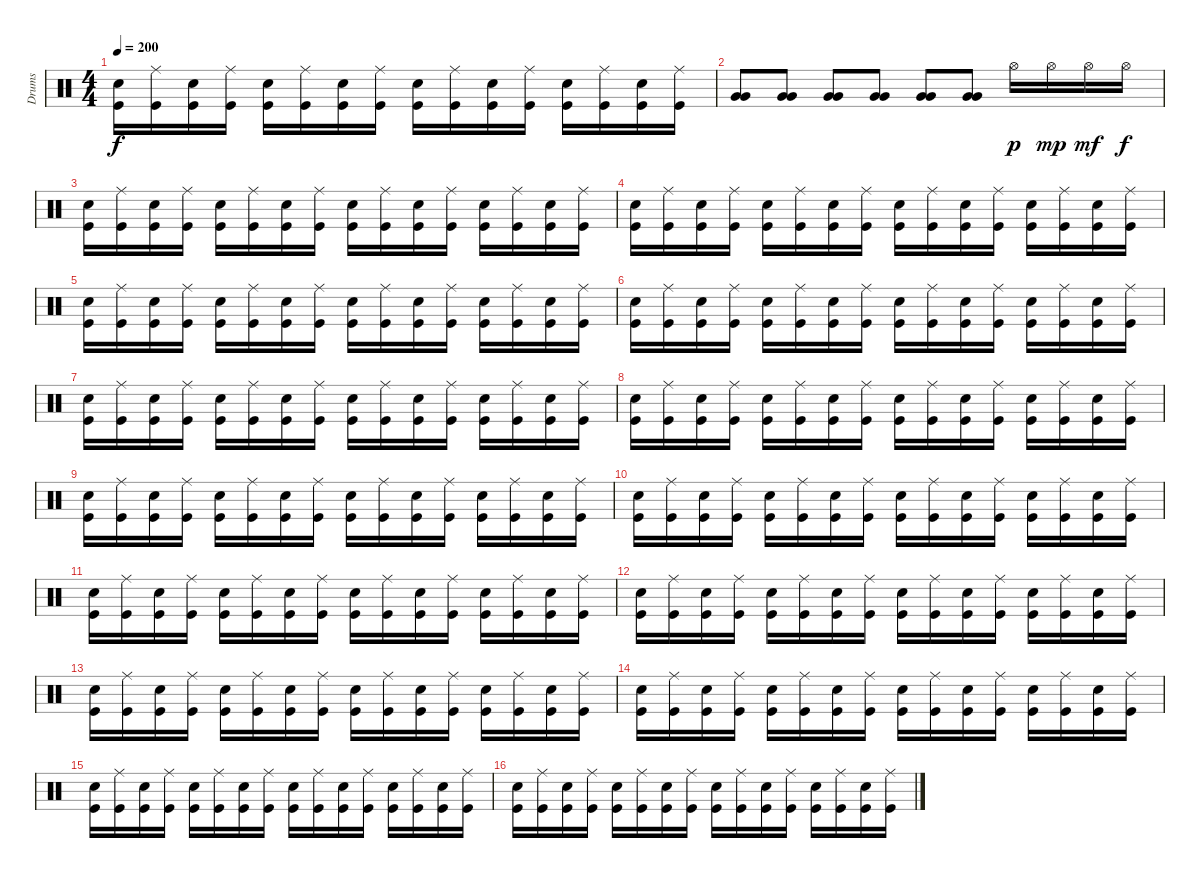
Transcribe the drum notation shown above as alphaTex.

\track ("Drums" "Drums") {instrument percussion}
\staff {score}
\articulation defaults
\ts (4 4)
\tempo 200
\clef neutral
\ks c
("Electric Snare (hit)" "Kick (hit)").16{dy f} ("Ride (middle)" "Kick (hit)").16 ("Electric Snare (hit)" "Kick (hit)").16 ("Ride (middle)" "Kick (hit)").16 ("Electric Snare (hit)" "Kick (hit)").16 ("Ride (middle)" "Kick (hit)").16 ("Electric Snare (hit)" "Kick (hit)").16 ("Ride (middle)" "Kick (hit)").16 ("Electric Snare (hit)" "Kick (hit)").16 ("Ride (middle)" "Kick (hit)").16 ("Electric Snare (hit)" "Kick (hit)").16 ("Ride (middle)" "Kick (hit)").16 ("Electric Snare (hit)" "Kick (hit)").16 ("Ride (middle)" "Kick (hit)").16 ("Electric Snare (hit)" "Kick (hit)").16 ("Ride (middle)" "Kick (hit)").16 |
("Very Low Tom (hit)" "Very Low Tom (hit)").8 ("Very Low Tom (hit)" "Very Low Tom (hit)").8 ("Very Low Tom (hit)" "Very Low Tom (hit)").8 ("Very Low Tom (hit)" "Very Low Tom (hit)").8 ("Very Low Tom (hit)" "Very Low Tom (hit)").8 ("Very Low Tom (hit)" "Very Low Tom (hit)").8 "Hi-Hat (open)".16{dy p} "Hi-Hat (open)".16{dy mp} "Hi-Hat (open)".16{dy mf} "Hi-Hat (open)".16{dy f} |
("Electric Snare (hit)" "Kick (hit)").16 ("Ride (middle)" "Kick (hit)").16 ("Electric Snare (hit)" "Kick (hit)").16 ("Ride (middle)" "Kick (hit)").16 ("Electric Snare (hit)" "Kick (hit)").16 ("Ride (middle)" "Kick (hit)").16 ("Electric Snare (hit)" "Kick (hit)").16 ("Ride (middle)" "Kick (hit)").16 ("Electric Snare (hit)" "Kick (hit)").16 ("Ride (middle)" "Kick (hit)").16 ("Electric Snare (hit)" "Kick (hit)").16 ("Ride (middle)" "Kick (hit)").16 ("Electric Snare (hit)" "Kick (hit)").16 ("Ride (middle)" "Kick (hit)").16 ("Electric Snare (hit)" "Kick (hit)").16 ("Ride (middle)" "Kick (hit)").16 |
("Electric Snare (hit)" "Kick (hit)").16 ("Ride (middle)" "Kick (hit)").16 ("Electric Snare (hit)" "Kick (hit)").16 ("Ride (middle)" "Kick (hit)").16 ("Electric Snare (hit)" "Kick (hit)").16 ("Ride (middle)" "Kick (hit)").16 ("Electric Snare (hit)" "Kick (hit)").16 ("Ride (middle)" "Kick (hit)").16 ("Electric Snare (hit)" "Kick (hit)").16 ("Ride (middle)" "Kick (hit)").16 ("Electric Snare (hit)" "Kick (hit)").16 ("Ride (middle)" "Kick (hit)").16 ("Electric Snare (hit)" "Kick (hit)").16 ("Ride (middle)" "Kick (hit)").16 ("Electric Snare (hit)" "Kick (hit)").16 ("Ride (middle)" "Kick (hit)").16 |
("Electric Snare (hit)" "Kick (hit)").16 ("Ride (middle)" "Kick (hit)").16 ("Electric Snare (hit)" "Kick (hit)").16 ("Ride (middle)" "Kick (hit)").16 ("Electric Snare (hit)" "Kick (hit)").16 ("Ride (middle)" "Kick (hit)").16 ("Electric Snare (hit)" "Kick (hit)").16 ("Ride (middle)" "Kick (hit)").16 ("Electric Snare (hit)" "Kick (hit)").16 ("Ride (middle)" "Kick (hit)").16 ("Electric Snare (hit)" "Kick (hit)").16 ("Ride (middle)" "Kick (hit)").16 ("Electric Snare (hit)" "Kick (hit)").16 ("Ride (middle)" "Kick (hit)").16 ("Electric Snare (hit)" "Kick (hit)").16 ("Ride (middle)" "Kick (hit)").16 |
("Electric Snare (hit)" "Kick (hit)").16 ("Ride (middle)" "Kick (hit)").16 ("Electric Snare (hit)" "Kick (hit)").16 ("Ride (middle)" "Kick (hit)").16 ("Electric Snare (hit)" "Kick (hit)").16 ("Ride (middle)" "Kick (hit)").16 ("Electric Snare (hit)" "Kick (hit)").16 ("Ride (middle)" "Kick (hit)").16 ("Electric Snare (hit)" "Kick (hit)").16 ("Ride (middle)" "Kick (hit)").16 ("Electric Snare (hit)" "Kick (hit)").16 ("Ride (middle)" "Kick (hit)").16 ("Electric Snare (hit)" "Kick (hit)").16 ("Ride (middle)" "Kick (hit)").16 ("Electric Snare (hit)" "Kick (hit)").16 ("Ride (middle)" "Kick (hit)").16 |
("Electric Snare (hit)" "Kick (hit)").16 ("Ride (middle)" "Kick (hit)").16 ("Electric Snare (hit)" "Kick (hit)").16 ("Ride (middle)" "Kick (hit)").16 ("Electric Snare (hit)" "Kick (hit)").16 ("Ride (middle)" "Kick (hit)").16 ("Electric Snare (hit)" "Kick (hit)").16 ("Ride (middle)" "Kick (hit)").16 ("Electric Snare (hit)" "Kick (hit)").16 ("Ride (middle)" "Kick (hit)").16 ("Electric Snare (hit)" "Kick (hit)").16 ("Ride (middle)" "Kick (hit)").16 ("Electric Snare (hit)" "Kick (hit)").16 ("Ride (middle)" "Kick (hit)").16 ("Electric Snare (hit)" "Kick (hit)").16 ("Ride (middle)" "Kick (hit)").16 |
("Electric Snare (hit)" "Kick (hit)").16 ("Ride (middle)" "Kick (hit)").16 ("Electric Snare (hit)" "Kick (hit)").16 ("Ride (middle)" "Kick (hit)").16 ("Electric Snare (hit)" "Kick (hit)").16 ("Ride (middle)" "Kick (hit)").16 ("Electric Snare (hit)" "Kick (hit)").16 ("Ride (middle)" "Kick (hit)").16 ("Electric Snare (hit)" "Kick (hit)").16 ("Ride (middle)" "Kick (hit)").16 ("Electric Snare (hit)" "Kick (hit)").16 ("Ride (middle)" "Kick (hit)").16 ("Electric Snare (hit)" "Kick (hit)").16 ("Ride (middle)" "Kick (hit)").16 ("Electric Snare (hit)" "Kick (hit)").16 ("Ride (middle)" "Kick (hit)").16 |
("Electric Snare (hit)" "Kick (hit)").16 ("Ride (middle)" "Kick (hit)").16 ("Electric Snare (hit)" "Kick (hit)").16 ("Ride (middle)" "Kick (hit)").16 ("Electric Snare (hit)" "Kick (hit)").16 ("Ride (middle)" "Kick (hit)").16 ("Electric Snare (hit)" "Kick (hit)").16 ("Ride (middle)" "Kick (hit)").16 ("Electric Snare (hit)" "Kick (hit)").16 ("Ride (middle)" "Kick (hit)").16 ("Electric Snare (hit)" "Kick (hit)").16 ("Ride (middle)" "Kick (hit)").16 ("Electric Snare (hit)" "Kick (hit)").16 ("Ride (middle)" "Kick (hit)").16 ("Electric Snare (hit)" "Kick (hit)").16 ("Ride (middle)" "Kick (hit)").16 |
("Electric Snare (hit)" "Kick (hit)").16 ("Ride (middle)" "Kick (hit)").16 ("Electric Snare (hit)" "Kick (hit)").16 ("Ride (middle)" "Kick (hit)").16 ("Electric Snare (hit)" "Kick (hit)").16 ("Ride (middle)" "Kick (hit)").16 ("Electric Snare (hit)" "Kick (hit)").16 ("Ride (middle)" "Kick (hit)").16 ("Electric Snare (hit)" "Kick (hit)").16 ("Ride (middle)" "Kick (hit)").16 ("Electric Snare (hit)" "Kick (hit)").16 ("Ride (middle)" "Kick (hit)").16 ("Electric Snare (hit)" "Kick (hit)").16 ("Ride (middle)" "Kick (hit)").16 ("Electric Snare (hit)" "Kick (hit)").16 ("Ride (middle)" "Kick (hit)").16 |
("Electric Snare (hit)" "Kick (hit)").16 ("Ride (middle)" "Kick (hit)").16 ("Electric Snare (hit)" "Kick (hit)").16 ("Ride (middle)" "Kick (hit)").16 ("Electric Snare (hit)" "Kick (hit)").16 ("Ride (middle)" "Kick (hit)").16 ("Electric Snare (hit)" "Kick (hit)").16 ("Ride (middle)" "Kick (hit)").16 ("Electric Snare (hit)" "Kick (hit)").16 ("Ride (middle)" "Kick (hit)").16 ("Electric Snare (hit)" "Kick (hit)").16 ("Ride (middle)" "Kick (hit)").16 ("Electric Snare (hit)" "Kick (hit)").16 ("Ride (middle)" "Kick (hit)").16 ("Electric Snare (hit)" "Kick (hit)").16 ("Ride (middle)" "Kick (hit)").16 |
("Electric Snare (hit)" "Kick (hit)").16 ("Ride (middle)" "Kick (hit)").16 ("Electric Snare (hit)" "Kick (hit)").16 ("Ride (middle)" "Kick (hit)").16 ("Electric Snare (hit)" "Kick (hit)").16 ("Ride (middle)" "Kick (hit)").16 ("Electric Snare (hit)" "Kick (hit)").16 ("Ride (middle)" "Kick (hit)").16 ("Electric Snare (hit)" "Kick (hit)").16 ("Ride (middle)" "Kick (hit)").16 ("Electric Snare (hit)" "Kick (hit)").16 ("Ride (middle)" "Kick (hit)").16 ("Electric Snare (hit)" "Kick (hit)").16 ("Ride (middle)" "Kick (hit)").16 ("Electric Snare (hit)" "Kick (hit)").16 ("Ride (middle)" "Kick (hit)").16 |
("Electric Snare (hit)" "Kick (hit)").16 ("Ride (middle)" "Kick (hit)").16 ("Electric Snare (hit)" "Kick (hit)").16 ("Ride (middle)" "Kick (hit)").16 ("Electric Snare (hit)" "Kick (hit)").16 ("Ride (middle)" "Kick (hit)").16 ("Electric Snare (hit)" "Kick (hit)").16 ("Ride (middle)" "Kick (hit)").16 ("Electric Snare (hit)" "Kick (hit)").16 ("Ride (middle)" "Kick (hit)").16 ("Electric Snare (hit)" "Kick (hit)").16 ("Ride (middle)" "Kick (hit)").16 ("Electric Snare (hit)" "Kick (hit)").16 ("Ride (middle)" "Kick (hit)").16 ("Electric Snare (hit)" "Kick (hit)").16 ("Ride (middle)" "Kick (hit)").16 |
("Electric Snare (hit)" "Kick (hit)").16 ("Ride (middle)" "Kick (hit)").16 ("Electric Snare (hit)" "Kick (hit)").16 ("Ride (middle)" "Kick (hit)").16 ("Electric Snare (hit)" "Kick (hit)").16 ("Ride (middle)" "Kick (hit)").16 ("Electric Snare (hit)" "Kick (hit)").16 ("Ride (middle)" "Kick (hit)").16 ("Electric Snare (hit)" "Kick (hit)").16 ("Ride (middle)" "Kick (hit)").16 ("Electric Snare (hit)" "Kick (hit)").16 ("Ride (middle)" "Kick (hit)").16 ("Electric Snare (hit)" "Kick (hit)").16 ("Ride (middle)" "Kick (hit)").16 ("Electric Snare (hit)" "Kick (hit)").16 ("Ride (middle)" "Kick (hit)").16 |
("Electric Snare (hit)" "Kick (hit)").16 ("Ride (middle)" "Kick (hit)").16 ("Electric Snare (hit)" "Kick (hit)").16 ("Ride (middle)" "Kick (hit)").16 ("Electric Snare (hit)" "Kick (hit)").16 ("Ride (middle)" "Kick (hit)").16 ("Electric Snare (hit)" "Kick (hit)").16 ("Ride (middle)" "Kick (hit)").16 ("Electric Snare (hit)" "Kick (hit)").16 ("Ride (middle)" "Kick (hit)").16 ("Electric Snare (hit)" "Kick (hit)").16 ("Ride (middle)" "Kick (hit)").16 ("Electric Snare (hit)" "Kick (hit)").16 ("Ride (middle)" "Kick (hit)").16 ("Electric Snare (hit)" "Kick (hit)").16 ("Ride (middle)" "Kick (hit)").16 |
("Electric Snare (hit)" "Kick (hit)").16 ("Ride (middle)" "Kick (hit)").16 ("Electric Snare (hit)" "Kick (hit)").16 ("Ride (middle)" "Kick (hit)").16 ("Electric Snare (hit)" "Kick (hit)").16 ("Ride (middle)" "Kick (hit)").16 ("Electric Snare (hit)" "Kick (hit)").16 ("Ride (middle)" "Kick (hit)").16 ("Electric Snare (hit)" "Kick (hit)").16 ("Ride (middle)" "Kick (hit)").16 ("Electric Snare (hit)" "Kick (hit)").16 ("Ride (middle)" "Kick (hit)").16 ("Electric Snare (hit)" "Kick (hit)").16 ("Ride (middle)" "Kick (hit)").16 ("Electric Snare (hit)" "Kick (hit)").16 ("Ride (middle)" "Kick (hit)").16
